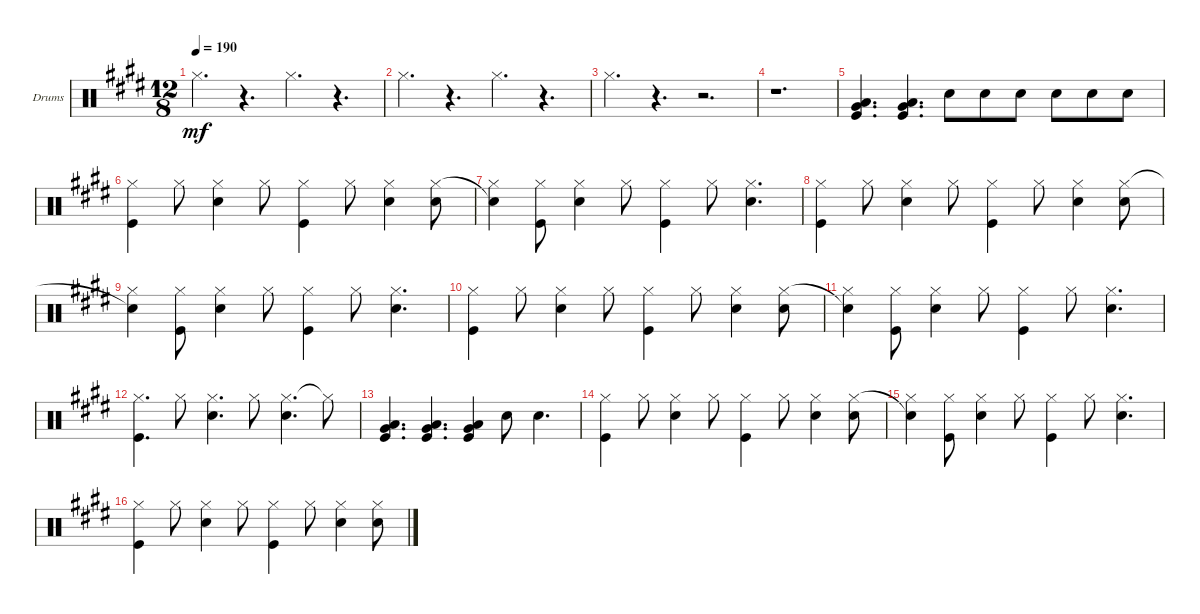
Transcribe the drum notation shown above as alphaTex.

\defaultSystemsLayout 4
\bracketExtendMode groupsimilarinstruments
\firstSystemTrackNameOrientation horizontal
\otherSystemsTrackNameOrientation horizontal
\track ("Drumkit" "Drums") {instrument percussion}
\staff {score}
\articulation defaults
\ts (12 8)
\tempo 190
\clef neutral
\scale
0.474178
\ks c#minor "Hi-Hat (closed)".4{d dy mf}
r.4{d} "Hi-Hat (closed)".4{d} r.4{d} |
\scale
0.262911 "Hi-Hat (closed)".4{d} r.4{d} "Hi-Hat (closed)".4{d} r.4{d} |
\scale
0.262911 "Hi-Hat (closed)".4{d} r.4{d} r.2{d} |
\scale
0.333333 r.1{d} |
\scale
0.333333 ("Low Tom (hit)" "Very Low Tom (hit)" "Kick (hit)").4{d} ("Kick (hit)" "Very Low Tom (hit)" "Low Tom (hit)").4{d} "Snare (hit) 2".8 "Snare (hit) 2".8 "Snare (hit) 2".8 "Snare (hit) 2".8 "Snare (hit) 2".8 "Snare (hit) 2".8 |
\scale
0.333333 ("Hi-Hat (closed)" "Kick (hit)").4 "Hi-Hat (closed)".8 ("Hi-Hat (closed)" "Snare (hit) 2").4 "Hi-Hat (closed)".8 ("Hi-Hat (closed)" "Kick (hit)").4 "Hi-Hat (closed)".8 ("Hi-Hat (closed)" "Snare (hit) 2").4 ("Hi-Hat (closed)" "Snare (hit) 2").8 |
\scale
0.333333 ("Snare (hit) 2"{t} "Hi-Hat (closed)").4 ("Hi-Hat (closed)" "Kick (hit)").8 ("Snare (hit) 2" "Hi-Hat (closed)").4 "Hi-Hat (closed)".8 ("Hi-Hat (closed)" "Kick (hit)").4 "Hi-Hat (closed)".8 ("Hi-Hat (closed)" "Snare (hit) 2").4{d} |
\scale
0.333333 ("Hi-Hat (closed)" "Kick (hit)").4 "Hi-Hat (closed)".8 ("Hi-Hat (closed)" "Snare (hit) 2").4 "Hi-Hat (closed)".8 ("Hi-Hat (closed)" "Kick (hit)").4 "Hi-Hat (closed)".8 ("Hi-Hat (closed)" "Snare (hit) 2").4 ("Hi-Hat (closed)" "Snare (hit) 2").8 |
\scale
0.333333 ("Snare (hit) 2"{t} "Hi-Hat (closed)").4 ("Hi-Hat (closed)" "Kick (hit)").8 ("Snare (hit) 2" "Hi-Hat (closed)").4 "Hi-Hat (closed)".8 ("Hi-Hat (closed)" "Kick (hit)").4 "Hi-Hat (closed)".8 ("Hi-Hat (closed)" "Snare (hit) 2").4{d} |
("Hi-Hat (closed)" "Kick (hit)").4 "Hi-Hat (closed)".8 ("Hi-Hat (closed)" "Snare (hit) 2").4 "Hi-Hat (closed)".8 ("Hi-Hat (closed)" "Kick (hit)").4 "Hi-Hat (closed)".8 ("Hi-Hat (closed)" "Snare (hit) 2").4 ("Hi-Hat (closed)" "Snare (hit) 2").8 |
("Snare (hit) 2"{t} "Hi-Hat (closed)").4 ("Hi-Hat (closed)" "Kick (hit)").8 ("Snare (hit) 2" "Hi-Hat (closed)").4 "Hi-Hat (closed)".8 ("Hi-Hat (closed)" "Kick (hit)").4 "Hi-Hat (closed)".8 ("Hi-Hat (closed)" "Snare (hit) 2").4{d} |
("Hi-Hat (closed)" "Kick (hit)").4{d} "Hi-Hat (closed)".8 ("Hi-Hat (closed)" "Snare (hit) 2").4{d} "Hi-Hat (closed)".8 ("Hi-Hat (closed)" "Snare (hit) 2").4{d} "Hi-Hat (closed)"{t}.8 |
("Low Tom (hit)" "Very Low Tom (hit)" "Kick (hit)").4{d} ("Kick (hit)" "Very Low Tom (hit)" "Low Tom (hit)").4{d} ("Low Tom (hit)" "Very Low Tom (hit)" "Kick (hit)").4 "Snare (hit) 2".8 "Snare (hit) 2".4{d} |
("Hi-Hat (closed)" "Kick (hit)").4 "Hi-Hat (closed)".8 ("Hi-Hat (closed)" "Snare (hit) 2").4 "Hi-Hat (closed)".8 ("Hi-Hat (closed)" "Kick (hit)").4 "Hi-Hat (closed)".8 ("Hi-Hat (closed)" "Snare (hit) 2").4 ("Hi-Hat (closed)" "Snare (hit) 2").8 |
("Snare (hit) 2"{t} "Hi-Hat (closed)").4 ("Hi-Hat (closed)" "Kick (hit)").8 ("Snare (hit) 2" "Hi-Hat (closed)").4 "Hi-Hat (closed)".8 ("Hi-Hat (closed)" "Kick (hit)").4 "Hi-Hat (closed)".8 ("Hi-Hat (closed)" "Snare (hit) 2").4{d} |
("Hi-Hat (closed)" "Kick (hit)").4 "Hi-Hat (closed)".8 ("Hi-Hat (closed)" "Snare (hit) 2").4 "Hi-Hat (closed)".8 ("Hi-Hat (closed)" "Kick (hit)").4 "Hi-Hat (closed)".8 ("Hi-Hat (closed)" "Snare (hit) 2").4 ("Hi-Hat (closed)" "Snare (hit) 2").8
